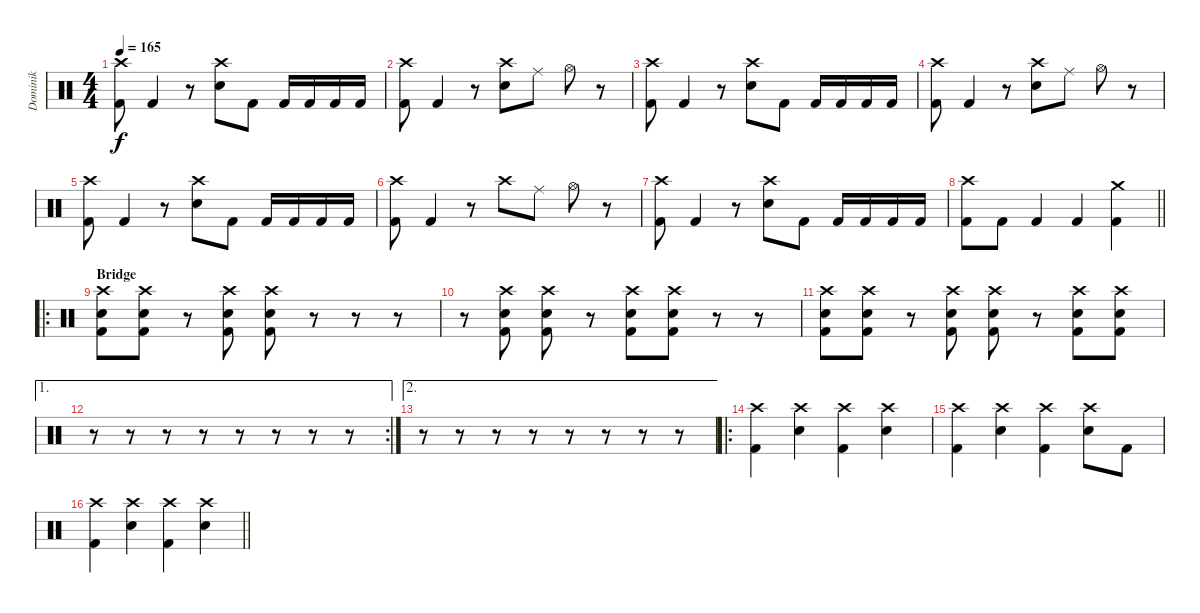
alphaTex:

\track ("Dominik" "Dominik") {instrument percussion}
\staff {score}
\articulation defaults
\ts (4 4)
\tempo 165
\clef neutral
\ks c
("Crash high (hit)" "Kick (hit) 2").8{dy f} "Kick (hit) 2".4 r.8 ("Crash high (hit)" "Electric Snare (hit)").8 "Kick (hit) 2".8 "Kick (hit) 2".16 "Kick (hit) 2".16 "Kick (hit) 2".16 "Kick (hit) 2".16 |
("Crash high (hit)" "Kick (hit) 2").8 "Kick (hit) 2".4 r.8 ("Crash high (hit)" "Electric Snare (hit)").8 "Ride (middle)".8 "Hi-Hat (open)".8 r.8 |
("Crash high (hit)" "Kick (hit) 2").8 "Kick (hit) 2".4 r.8 ("Crash high (hit)" "Electric Snare (hit)").8 "Kick (hit) 2".8 "Kick (hit) 2".16 "Kick (hit) 2".16 "Kick (hit) 2".16 "Kick (hit) 2".16 |
("Crash high (hit)" "Kick (hit) 2").8 "Kick (hit) 2".4 r.8 ("Crash high (hit)" "Electric Snare (hit)").8 "Ride (middle)".8 "Hi-Hat (open)".8 r.8 |
("Crash high (hit)" "Kick (hit) 2").8 "Kick (hit) 2".4 r.8 ("Crash high (hit)" "Electric Snare (hit)").8 "Kick (hit) 2".8 "Kick (hit) 2".16 "Kick (hit) 2".16 "Kick (hit) 2".16 "Kick (hit) 2".16 |
("Crash high (hit)" "Kick (hit) 2").8 "Kick (hit) 2".4 r.8 "Crash high (hit)".8 "Ride (middle)".8 "Hi-Hat (open)".8 r.8 |
("Crash high (hit)" "Kick (hit) 2").8 "Kick (hit) 2".4 r.8 ("Crash high (hit)" "Electric Snare (hit)").8 "Kick (hit) 2".8 "Kick (hit) 2".16 "Kick (hit) 2".16 "Kick (hit) 2".16 "Kick (hit) 2".16 |
\barLineRight lightlight
("Crash high (hit)" "Kick (hit) 2").8 "Kick (hit) 2".8 "Kick (hit) 2".4 "Kick (hit) 2".4 ("Crash medium (hit)" "Kick (hit) 2").4 |
\ro
\section ("" "Bridge")
("Crash high (hit)" "Electric Snare (hit)" "Kick (hit) 2").8 ("Crash high (hit)" "Electric Snare (hit)" "Kick (hit) 2").8 r.8 ("Crash high (hit)" "Electric Snare (hit)" "Kick (hit) 2").8 ("Crash high (hit)" "Electric Snare (hit)" "Kick (hit) 2").8 r.8 r.8 r.8 |
r.8 ("Crash high (hit)" "Electric Snare (hit)" "Kick (hit) 2").8 ("Crash high (hit)" "Electric Snare (hit)" "Kick (hit) 2").8 r.8 ("Crash high (hit)" "Electric Snare (hit)" "Kick (hit) 2").8 ("Crash high (hit)" "Electric Snare (hit)" "Kick (hit) 2").8 r.8 r.8 |
("Crash high (hit)" "Electric Snare (hit)" "Kick (hit) 2").8 ("Crash high (hit)" "Electric Snare (hit)" "Kick (hit) 2").8 r.8 ("Crash high (hit)" "Electric Snare (hit)" "Kick (hit) 2").8 ("Crash high (hit)" "Electric Snare (hit)" "Kick (hit) 2").8 r.8 ("Crash high (hit)" "Electric Snare (hit)" "Kick (hit) 2").8 ("Crash high (hit)" "Electric Snare (hit)" "Kick (hit) 2").8 |
\ae 1
\rc 2
r.8 r.8 r.8 r.8 r.8 r.8 r.8 r.8 |
\ae 2
r.8 r.8 r.8 r.8 r.8 r.8 r.8 r.8 |
\ro
("Crash high (hit)" "Kick (hit) 2").4 ("Crash high (hit)" "Electric Snare (hit)").4 ("Crash high (hit)" "Kick (hit) 2").4 ("Crash high (hit)" "Electric Snare (hit)").4 |
("Crash high (hit)" "Kick (hit) 2").4 ("Crash high (hit)" "Electric Snare (hit)").4 ("Crash high (hit)" "Kick (hit) 2").4 ("Crash high (hit)" "Electric Snare (hit)").8 "Kick (hit) 2".8 |
\barLineRight lightlight
("Crash high (hit)" "Kick (hit) 2").4 ("Crash high (hit)" "Electric Snare (hit)").4 ("Crash high (hit)" "Kick (hit) 2").4 ("Crash high (hit)" "Electric Snare (hit)").4
